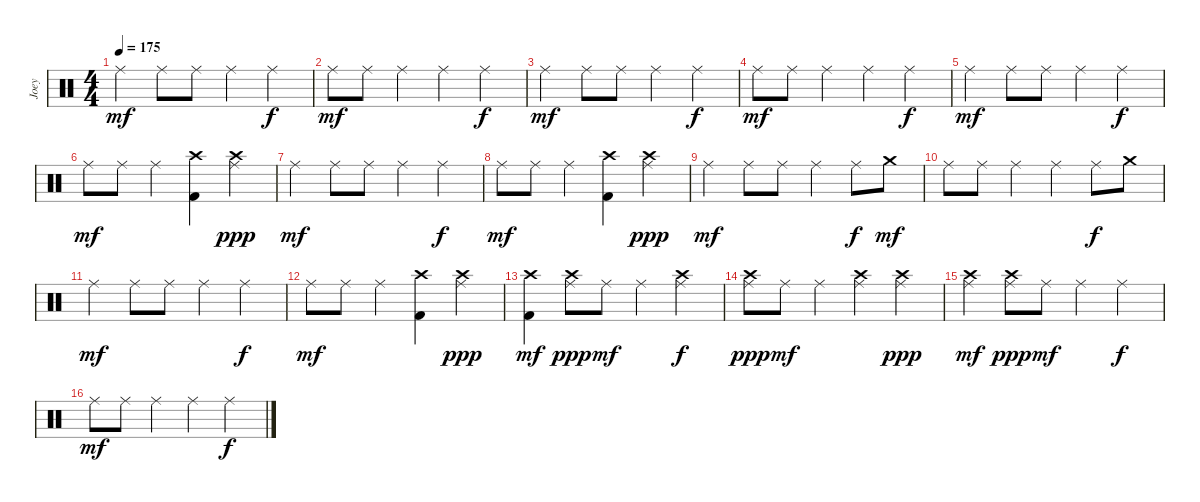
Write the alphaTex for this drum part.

\track ("Joey" "Joey") {instrument percussion}
\staff {score}
\articulation defaults
\ts (4 4)
\tempo 175
\clef neutral
\ks c "Ride (middle)".4{dy mf} "Ride (middle)".8 "Ride (middle)".8 "Ride (middle)".4 "Ride (middle)".4{dy f}
|
"Ride (middle)".8{dy mf} "Ride (middle)".8 "Ride (middle)".4 "Ride (middle)".4 "Ride (middle)".4{dy f} |
"Ride (middle)".4{dy mf} "Ride (middle)".8 "Ride (middle)".8 "Ride (middle)".4 "Ride (middle)".4{dy f} |
"Ride (middle)".8{dy mf} "Ride (middle)".8 "Ride (middle)".4 "Ride (middle)".4 "Ride (middle)".4{dy f} |
"Ride (middle)".4{dy mf} "Ride (middle)".8 "Ride (middle)".8 "Ride (middle)".4 "Ride (middle)".4{dy f} |
"Ride (middle)".8{dy mf} "Ride (middle)".8 "Ride (middle)".4 ("Crash high (hit)" "Kick (hit) 2").4 ("Ride (middle)" "Crash high (hit)").4{dy ppp} |
"Ride (middle)".4{dy mf} "Ride (middle)".8 "Ride (middle)".8 "Ride (middle)".4 "Ride (middle)".4{dy f} |
"Ride (middle)".8{dy mf} "Ride (middle)".8 "Ride (middle)".4 ("Crash high (hit)" "Kick (hit) 2").4 ("Ride (middle)" "Crash high (hit)").4{dy ppp} |
"Ride (middle)".4{dy mf} "Ride (middle)".8 "Ride (middle)".8 "Ride (middle)".4 "Ride (middle)".8{dy f} "Crash medium (hit)".8{dy mf} |
"Ride (middle)".8 "Ride (middle)".8 "Ride (middle)".4 "Ride (middle)".4 "Ride (middle)".8{dy f} "Crash medium (hit)".8 |
"Ride (middle)".4{dy mf} "Ride (middle)".8 "Ride (middle)".8 "Ride (middle)".4 "Ride (middle)".4{dy f} |
"Ride (middle)".8{dy mf} "Ride (middle)".8 "Ride (middle)".4 ("Crash high (hit)" "Kick (hit) 2").4 ("Ride (middle)" "Crash high (hit)").4{dy ppp} |
("Crash high (hit)" "Kick (hit) 2").4{dy mf} ("Ride (middle)" "Crash high (hit)").8{dy ppp} "Ride (middle)".8{dy mf} "Ride (middle)".4 ("Ride (middle)" "Crash high (hit)").4{dy f} |
("Ride (middle)" "Crash high (hit)").8{dy ppp} "Ride (middle)".8{dy mf} "Ride (middle)".4 ("Ride (middle)" "Crash high (hit)").4 ("Ride (middle)" "Crash high (hit)").4{dy ppp} |
("Ride (middle)" "Crash high (hit)").4{dy mf} ("Ride (middle)" "Crash high (hit)").8{dy ppp} "Ride (middle)".8{dy mf} "Ride (middle)".4 "Ride (middle)".4{dy f} |
"Ride (middle)".8{dy mf} "Ride (middle)".8 "Ride (middle)".4 "Ride (middle)".4 "Ride (middle)".4{dy f}
